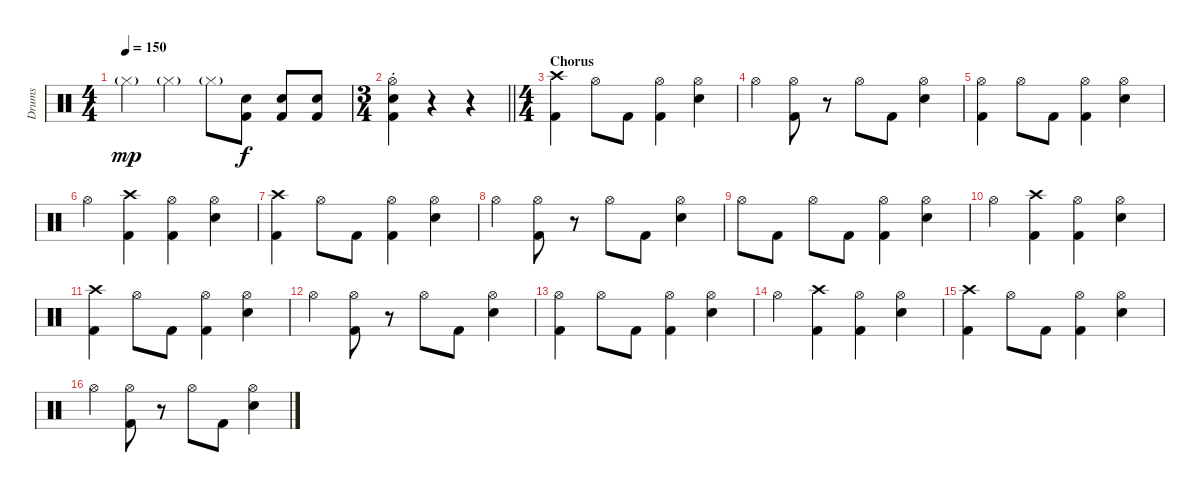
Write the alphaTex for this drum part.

\track ("Drums" "Drums") {instrument percussion}
\staff {score}
\articulation defaults
\ts (4 4)
\tempo 150
\clef neutral
\ks c "Hi-Hat (closed)"{g}.4{dy mp} "Hi-Hat (closed)"{g}.4 "Hi-Hat (closed)"{g}.8
("Kick (hit) 2" "Snare (hit) 2").8{dy f volume 16} ("Kick (hit) 2" "Snare (hit) 2").8 ("Kick (hit) 2" "Snare (hit) 2").8 |
\ts (3 4)
\barLineRight lightlight
("Kick (hit) 2" "Hi-Hat (open)"{st} "Snare (hit) 2").4 r.4 r.4 |
\ts (4 4)
\section ("" "Chorus")
("Kick (hit) 2" "Crash high (hit)").4 "Hi-Hat (open)".8 "Kick (hit) 2".8 ("Kick (hit) 2" "Hi-Hat (open)").4 ("Hi-Hat (open)" "Snare (hit) 2").4 |
"Hi-Hat (open)".4 ("Kick (hit) 2" "Hi-Hat (open)").8 r.8 "Hi-Hat (open)".8 "Kick (hit) 2".8 ("Hi-Hat (open)" "Snare (hit) 2").4 |
("Kick (hit) 2" "Hi-Hat (open)").4 "Hi-Hat (open)".8 "Kick (hit) 2".8 ("Kick (hit) 2" "Hi-Hat (open)").4 ("Hi-Hat (open)" "Snare (hit) 2").4 |
"Hi-Hat (open)".4 ("Kick (hit) 2" "Crash high (hit)").4 ("Kick (hit) 2" "Hi-Hat (open)").4 ("Hi-Hat (open)" "Snare (hit) 2").4 |
("Kick (hit) 2" "Crash high (hit)").4 "Hi-Hat (open)".8 "Kick (hit) 2".8 ("Kick (hit) 2" "Hi-Hat (open)").4 ("Hi-Hat (open)" "Snare (hit) 2").4 |
"Hi-Hat (open)".4 ("Kick (hit) 2" "Hi-Hat (open)").8 r.8 "Hi-Hat (open)".8 "Kick (hit) 2".8 ("Hi-Hat (open)" "Snare (hit) 2").4 |
"Hi-Hat (open)".8 "Kick (hit) 2".8 "Hi-Hat (open)".8 "Kick (hit) 2".8 ("Kick (hit) 2" "Hi-Hat (open)").4 ("Hi-Hat (open)" "Snare (hit) 2").4 |
"Hi-Hat (open)".4 ("Kick (hit) 2" "Crash high (hit)").4 ("Kick (hit) 2" "Hi-Hat (open)").4 ("Hi-Hat (open)" "Snare (hit) 2").4 |
("Kick (hit) 2" "Crash high (hit)").4 "Hi-Hat (open)".8 "Kick (hit) 2".8 ("Kick (hit) 2" "Hi-Hat (open)").4 ("Hi-Hat (open)" "Snare (hit) 2").4 |
"Hi-Hat (open)".4 ("Kick (hit) 2" "Hi-Hat (open)").8 r.8 "Hi-Hat (open)".8 "Kick (hit) 2".8 ("Hi-Hat (open)" "Snare (hit) 2").4 |
("Kick (hit) 2" "Hi-Hat (open)").4 "Hi-Hat (open)".8 "Kick (hit) 2".8 ("Kick (hit) 2" "Hi-Hat (open)").4 ("Hi-Hat (open)" "Snare (hit) 2").4 |
"Hi-Hat (open)".4 ("Kick (hit) 2" "Crash high (hit)").4 ("Kick (hit) 2" "Hi-Hat (open)").4 ("Hi-Hat (open)" "Snare (hit) 2").4 |
("Kick (hit) 2" "Crash high (hit)").4 "Hi-Hat (open)".8 "Kick (hit) 2".8 ("Kick (hit) 2" "Hi-Hat (open)").4 ("Hi-Hat (open)" "Snare (hit) 2").4 |
"Hi-Hat (open)".4 ("Kick (hit) 2" "Hi-Hat (open)").8 r.8 "Hi-Hat (open)".8 "Kick (hit) 2".8 ("Hi-Hat (open)" "Snare (hit) 2").4
